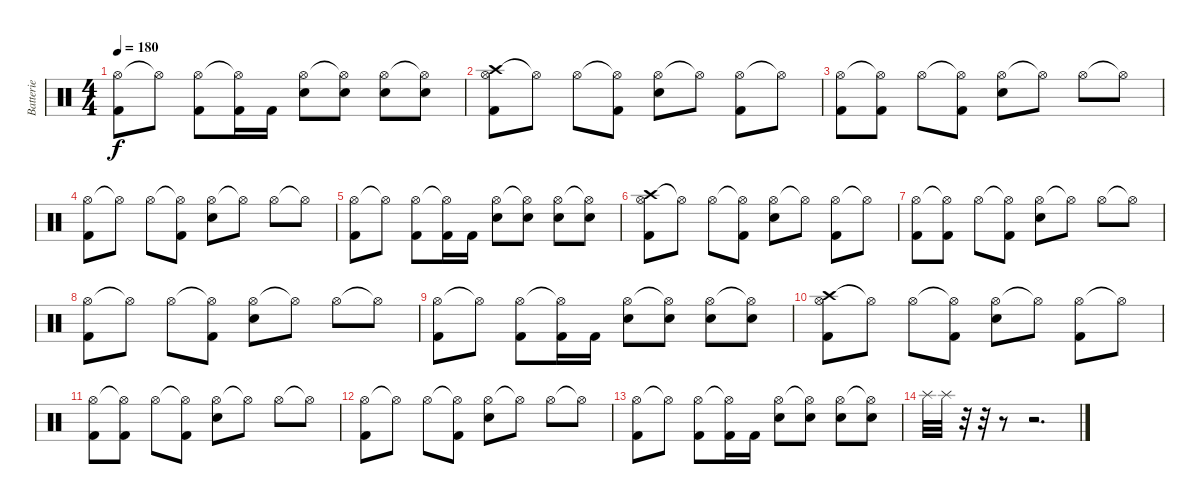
\track ("Batterie" "Batterie") {instrument percussion}
\staff {score}
\articulation defaults
\ts (4 4)
\tempo 180
\clef neutral
\ks c
("Hi-Hat (open)" "Kick (hit) 2").8{dy f} "Hi-Hat (open)"{t}.8 ("Hi-Hat (open)" "Kick (hit) 2").8 ("Hi-Hat (open)"{t} "Kick (hit) 2").16 "Kick (hit) 2".16 ("Hi-Hat (open)" "Electric Snare (hit)").8 ("Hi-Hat (open)"{t} "Electric Snare (hit)").8 ("Hi-Hat (open)" "Electric Snare (hit)").8 ("Hi-Hat (open)"{t} "Electric Snare (hit)").8 |
("Crash high (hit)" "Hi-Hat (open)" "Kick (hit) 2").8 "Hi-Hat (open)"{t}.8 "Hi-Hat (open)".8 ("Hi-Hat (open)"{t} "Kick (hit) 2").8 ("Hi-Hat (open)" "Electric Snare (hit)").8 "Hi-Hat (open)"{t}.8 ("Hi-Hat (open)" "Kick (hit) 2").8 "Hi-Hat (open)"{t}.8 |
("Hi-Hat (open)" "Kick (hit) 2").8 ("Hi-Hat (open)"{t} "Kick (hit) 2").8 "Hi-Hat (open)".8 ("Hi-Hat (open)"{t} "Kick (hit) 2").8 ("Hi-Hat (open)" "Electric Snare (hit)").8 "Hi-Hat (open)"{t}.8 "Hi-Hat (open)".8 "Hi-Hat (open)"{t}.8 |
("Hi-Hat (open)" "Kick (hit) 2").8 "Hi-Hat (open)"{t}.8 "Hi-Hat (open)".8 ("Hi-Hat (open)"{t} "Kick (hit) 2").8 ("Hi-Hat (open)" "Electric Snare (hit)").8 "Hi-Hat (open)"{t}.8 "Hi-Hat (open)".8 "Hi-Hat (open)"{t}.8 |
("Hi-Hat (open)" "Kick (hit) 2").8 "Hi-Hat (open)"{t}.8 ("Hi-Hat (open)" "Kick (hit) 2").8 ("Hi-Hat (open)"{t} "Kick (hit) 2").16 "Kick (hit) 2".16 ("Hi-Hat (open)" "Electric Snare (hit)").8 ("Hi-Hat (open)"{t} "Electric Snare (hit)").8 ("Hi-Hat (open)" "Electric Snare (hit)").8 ("Hi-Hat (open)"{t} "Electric Snare (hit)").8 |
("Crash high (hit)" "Hi-Hat (open)" "Kick (hit) 2").8 "Hi-Hat (open)"{t}.8 "Hi-Hat (open)".8 ("Hi-Hat (open)"{t} "Kick (hit) 2").8 ("Hi-Hat (open)" "Electric Snare (hit)").8 "Hi-Hat (open)"{t}.8 ("Hi-Hat (open)" "Kick (hit) 2").8 "Hi-Hat (open)"{t}.8 |
("Hi-Hat (open)" "Kick (hit) 2").8 ("Hi-Hat (open)"{t} "Kick (hit) 2").8 "Hi-Hat (open)".8 ("Hi-Hat (open)"{t} "Kick (hit) 2").8 ("Hi-Hat (open)" "Electric Snare (hit)").8 "Hi-Hat (open)"{t}.8 "Hi-Hat (open)".8 "Hi-Hat (open)"{t}.8 |
("Hi-Hat (open)" "Kick (hit) 2").8 "Hi-Hat (open)"{t}.8 "Hi-Hat (open)".8 ("Hi-Hat (open)"{t} "Kick (hit) 2").8 ("Hi-Hat (open)" "Electric Snare (hit)").8 "Hi-Hat (open)"{t}.8 "Hi-Hat (open)".8 "Hi-Hat (open)"{t}.8 |
("Hi-Hat (open)" "Kick (hit) 2").8 "Hi-Hat (open)"{t}.8 ("Hi-Hat (open)" "Kick (hit) 2").8 ("Hi-Hat (open)"{t} "Kick (hit) 2").16 "Kick (hit) 2".16 ("Hi-Hat (open)" "Electric Snare (hit)").8 ("Hi-Hat (open)"{t} "Electric Snare (hit)").8 ("Hi-Hat (open)" "Electric Snare (hit)").8 ("Hi-Hat (open)"{t} "Electric Snare (hit)").8 |
("Crash high (hit)" "Hi-Hat (open)" "Kick (hit) 2").8 "Hi-Hat (open)"{t}.8 "Hi-Hat (open)".8 ("Hi-Hat (open)"{t} "Kick (hit) 2").8 ("Hi-Hat (open)" "Electric Snare (hit)").8 "Hi-Hat (open)"{t}.8 ("Hi-Hat (open)" "Kick (hit) 2").8 "Hi-Hat (open)"{t}.8 |
("Hi-Hat (open)" "Kick (hit) 2").8 ("Hi-Hat (open)"{t} "Kick (hit) 2").8 "Hi-Hat (open)".8 ("Hi-Hat (open)"{t} "Kick (hit) 2").8 ("Hi-Hat (open)" "Electric Snare (hit)").8 "Hi-Hat (open)"{t}.8 "Hi-Hat (open)".8 "Hi-Hat (open)"{t}.8 |
("Hi-Hat (open)" "Kick (hit) 2").8 "Hi-Hat (open)"{t}.8 "Hi-Hat (open)".8 ("Hi-Hat (open)"{t} "Kick (hit) 2").8 ("Hi-Hat (open)" "Electric Snare (hit)").8 "Hi-Hat (open)"{t}.8 "Hi-Hat (open)".8 "Hi-Hat (open)"{t}.8 |
("Hi-Hat (open)" "Kick (hit) 2").8 "Hi-Hat (open)"{t}.8 ("Hi-Hat (open)" "Kick (hit) 2").8 ("Hi-Hat (open)"{t} "Kick (hit) 2").16 "Kick (hit) 2".16 ("Hi-Hat (open)" "Electric Snare (hit)").8 ("Hi-Hat (open)"{t} "Electric Snare (hit)").8 ("Hi-Hat (open)" "Electric Snare (hit)").8 ("Hi-Hat (open)"{t} "Electric Snare (hit)").8 |
"Splash (hit)".32 "Splash (hit)".32 r.32 r.32 r.8 r.2{d}
